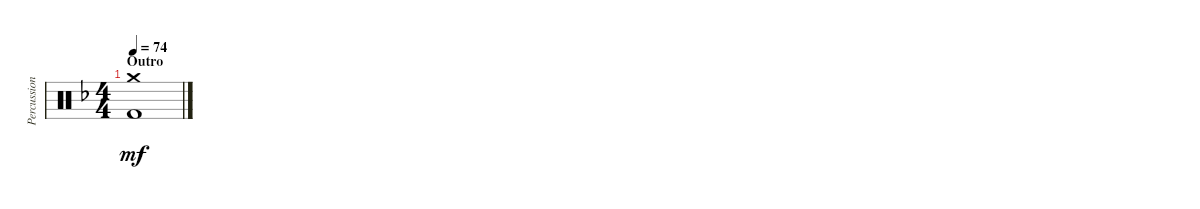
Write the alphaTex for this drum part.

\track ("Percussion" "Percussion") {instrument percussion}
\staff {score}
\articulation defaults
\ts (4 4)
\section ("" "Outro")
\tempo 74
\clef neutral
\ks f
("Crash medium (hit)" "Kick (hit) 2").1{dy mf}
